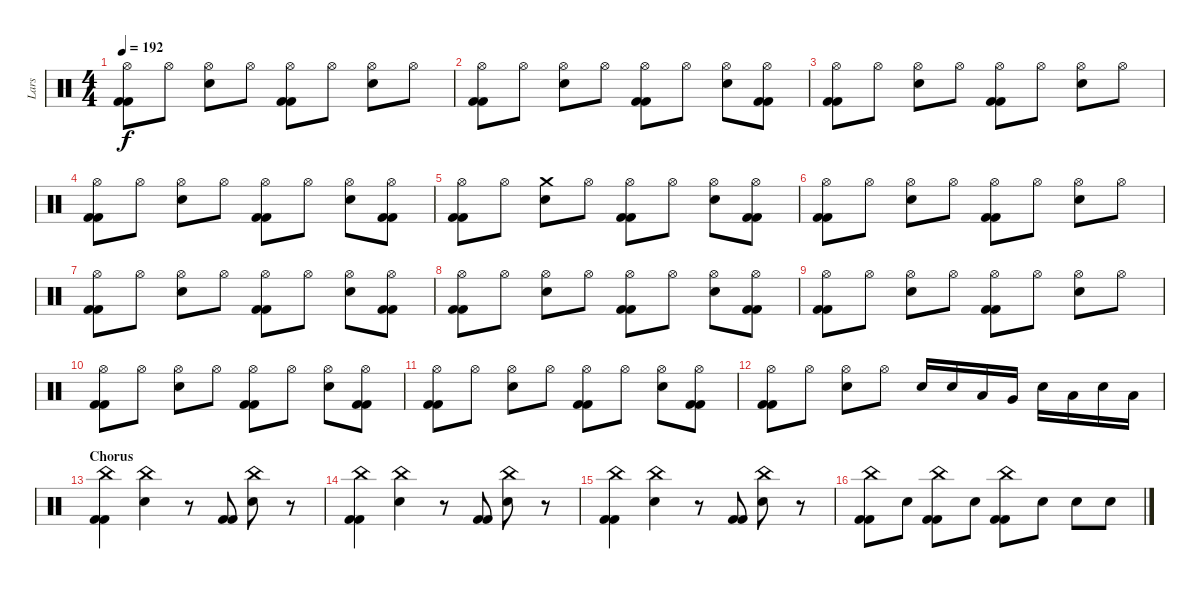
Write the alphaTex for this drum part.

\track ("Lars" "Lars") {instrument percussion}
\staff {score}
\articulation defaults
\ts (4 4)
\tempo 192
\clef neutral
\ks c
("Hi-Hat (open)" "Kick (hit) 2" "Kick (hit) 2").8{dy f} "Hi-Hat (open)".8 ("Electric Snare (hit)" "Hi-Hat (open)").8 "Hi-Hat (open)".8 ("Hi-Hat (open)" "Kick (hit) 2" "Kick (hit) 2").8 "Hi-Hat (open)".8 ("Electric Snare (hit)" "Hi-Hat (open)").8 "Hi-Hat (open)".8 |
("Hi-Hat (open)" "Kick (hit) 2" "Kick (hit) 2").8 "Hi-Hat (open)".8 ("Electric Snare (hit)" "Hi-Hat (open)").8 "Hi-Hat (open)".8 ("Hi-Hat (open)" "Kick (hit) 2" "Kick (hit) 2").8 "Hi-Hat (open)".8 ("Electric Snare (hit)" "Hi-Hat (open)").8 ("Hi-Hat (open)" "Kick (hit) 2" "Kick (hit) 2").8 |
("Hi-Hat (open)" "Kick (hit) 2" "Kick (hit) 2").8 "Hi-Hat (open)".8 ("Electric Snare (hit)" "Hi-Hat (open)").8 "Hi-Hat (open)".8 ("Hi-Hat (open)" "Kick (hit) 2" "Kick (hit) 2").8 "Hi-Hat (open)".8 ("Electric Snare (hit)" "Hi-Hat (open)").8 "Hi-Hat (open)".8 |
("Hi-Hat (open)" "Kick (hit) 2" "Kick (hit) 2").8 "Hi-Hat (open)".8 ("Electric Snare (hit)" "Hi-Hat (open)").8 "Hi-Hat (open)".8 ("Hi-Hat (open)" "Kick (hit) 2" "Kick (hit) 2").8 "Hi-Hat (open)".8 ("Electric Snare (hit)" "Hi-Hat (open)").8 ("Hi-Hat (open)" "Kick (hit) 2" "Kick (hit) 2").8 |
("Hi-Hat (open)" "Kick (hit) 2" "Kick (hit) 2").8 "Hi-Hat (open)".8 ("Electric Snare (hit)" "Crash medium (hit)").8 "Hi-Hat (open)".8 ("Hi-Hat (open)" "Kick (hit) 2" "Kick (hit) 2").8 "Hi-Hat (open)".8 ("Electric Snare (hit)" "Hi-Hat (open)").8 ("Hi-Hat (open)" "Kick (hit) 2" "Kick (hit) 2").8 |
("Hi-Hat (open)" "Kick (hit) 2" "Kick (hit) 2").8 "Hi-Hat (open)".8 ("Electric Snare (hit)" "Hi-Hat (open)").8 "Hi-Hat (open)".8 ("Hi-Hat (open)" "Kick (hit) 2" "Kick (hit) 2").8 "Hi-Hat (open)".8 ("Electric Snare (hit)" "Hi-Hat (open)").8 "Hi-Hat (open)".8 |
("Hi-Hat (open)" "Kick (hit) 2" "Kick (hit) 2").8 "Hi-Hat (open)".8 ("Electric Snare (hit)" "Hi-Hat (open)").8 "Hi-Hat (open)".8 ("Hi-Hat (open)" "Kick (hit) 2" "Kick (hit) 2").8 "Hi-Hat (open)".8 ("Electric Snare (hit)" "Hi-Hat (open)").8 ("Hi-Hat (open)" "Kick (hit) 2" "Kick (hit) 2").8 |
("Hi-Hat (open)" "Kick (hit) 2" "Kick (hit) 2").8 "Hi-Hat (open)".8 ("Electric Snare (hit)" "Hi-Hat (open)").8 "Hi-Hat (open)".8 ("Hi-Hat (open)" "Kick (hit) 2" "Kick (hit) 2").8 "Hi-Hat (open)".8 ("Electric Snare (hit)" "Hi-Hat (open)").8 ("Hi-Hat (open)" "Kick (hit) 2" "Kick (hit) 2").8 |
("Hi-Hat (open)" "Kick (hit) 2" "Kick (hit) 2").8 "Hi-Hat (open)".8 ("Electric Snare (hit)" "Hi-Hat (open)").8 "Hi-Hat (open)".8 ("Hi-Hat (open)" "Kick (hit) 2" "Kick (hit) 2").8 "Hi-Hat (open)".8 ("Electric Snare (hit)" "Hi-Hat (open)").8 "Hi-Hat (open)".8 |
("Hi-Hat (open)" "Kick (hit) 2" "Kick (hit) 2").8 "Hi-Hat (open)".8 ("Electric Snare (hit)" "Hi-Hat (open)").8 "Hi-Hat (open)".8 ("Hi-Hat (open)" "Kick (hit) 2" "Kick (hit) 2").8 "Hi-Hat (open)".8 ("Electric Snare (hit)" "Hi-Hat (open)").8 ("Hi-Hat (open)" "Kick (hit) 2" "Kick (hit) 2").8 |
("Hi-Hat (open)" "Kick (hit) 2" "Kick (hit) 2").8 "Hi-Hat (open)".8 ("Electric Snare (hit)" "Hi-Hat (open)").8 "Hi-Hat (open)".8 ("Hi-Hat (open)" "Kick (hit) 2" "Kick (hit) 2").8 "Hi-Hat (open)".8 ("Electric Snare (hit)" "Hi-Hat (open)").8 ("Hi-Hat (open)" "Kick (hit) 2" "Kick (hit) 2").8 |
("Hi-Hat (open)" "Kick (hit) 2" "Kick (hit) 2").8 "Hi-Hat (open)".8 ("Electric Snare (hit)" "Hi-Hat (open)").8 "Hi-Hat (open)".8 "Electric Snare (hit)".16 "Electric Snare (hit)".16 "Low Tom (hit)".16 "Very Low Tom (hit)".16 "Electric Snare (hit)".16 "Low Tom (hit)".16 "Electric Snare (hit)".16 "Low Tom (hit)".16 |
\section ("" "Chorus")
("China (hit)" "Kick (hit) 2" "Kick (hit) 2").4 ("Electric Snare (hit)" "China (hit)").4 r.8 ("Kick (hit) 2" "Kick (hit) 2").8 ("Electric Snare (hit)" "China (hit)").8 r.8 |
("China (hit)" "Kick (hit) 2" "Kick (hit) 2").4 ("Electric Snare (hit)" "China (hit)").4 r.8 ("Kick (hit) 2" "Kick (hit) 2").8 ("Electric Snare (hit)" "China (hit)").8 r.8 |
("China (hit)" "Kick (hit) 2" "Kick (hit) 2").4 ("Electric Snare (hit)" "China (hit)").4 r.8 ("Kick (hit) 2" "Kick (hit) 2").8 ("Electric Snare (hit)" "China (hit)").8 r.8 |
("China (hit)" "Kick (hit) 2" "Kick (hit) 2").8 "Electric Snare (hit)".8 ("Kick (hit) 2" "Kick (hit) 2" "China (hit)").8 "Electric Snare (hit)".8 ("China (hit)" "Kick (hit) 2" "Kick (hit) 2").8 "Electric Snare (hit)".8 "Electric Snare (hit)".8 "Electric Snare (hit)".8
